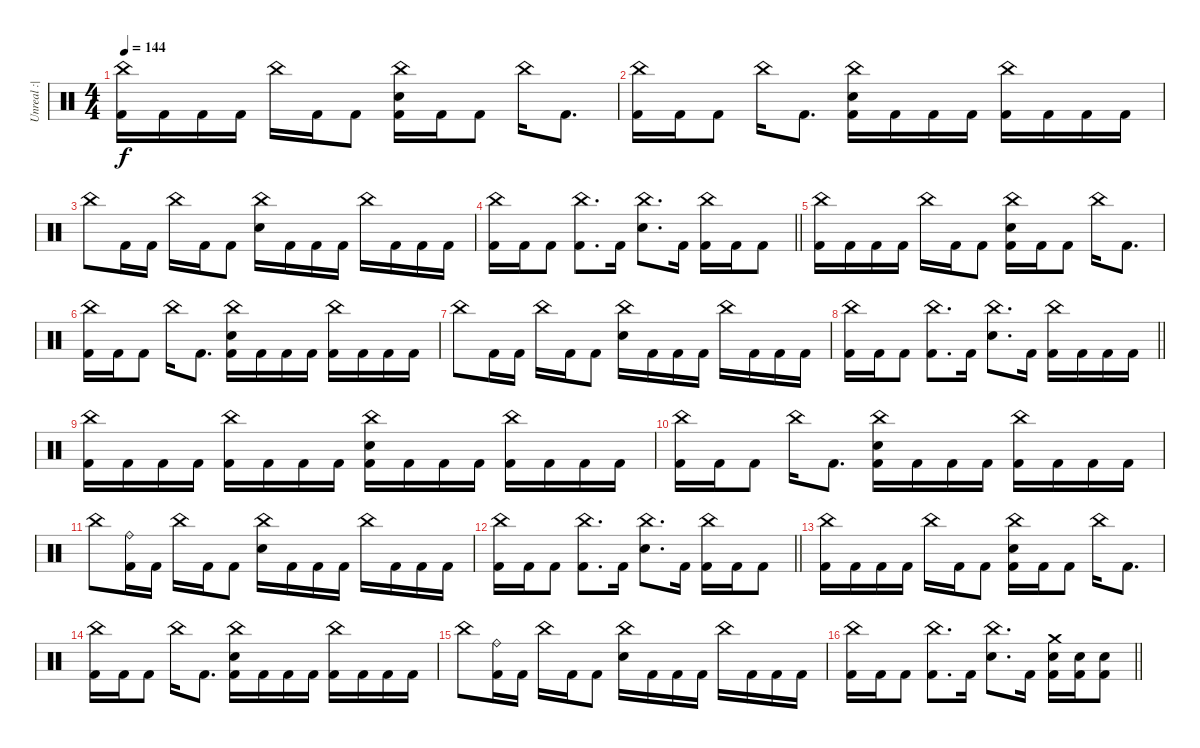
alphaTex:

\track ("Unreal :|" "Unreal :|") {instrument percussion}
\staff {score}
\articulation defaults
\ts (4 4)
\section ("" "")
\tempo 144
\clef neutral
\ks c
("China (hit)" "Kick (hit) 2").16{dy f} "Kick (hit) 2".16 "Kick (hit) 2".16 "Kick (hit) 2".16 "China (hit)".16 "Kick (hit) 2".16 "Kick (hit) 2".8 ("China (hit)" "Electric Snare (hit)" "Kick (hit) 2").16 "Kick (hit) 2".16 "Kick (hit) 2".8 "China (hit)".16 "Kick (hit) 2".8{d} |
("China (hit)" "Kick (hit) 2").16 "Kick (hit) 2".16 "Kick (hit) 2".8 "China (hit)".16 "Kick (hit) 2".8{d} ("China (hit)" "Electric Snare (hit)" "Kick (hit) 2").16 "Kick (hit) 2".16 "Kick (hit) 2".16 "Kick (hit) 2".16 ("China (hit)" "Kick (hit) 2").16 "Kick (hit) 2".16 "Kick (hit) 2".16 "Kick (hit) 2".16 |
"China (hit)".8 "Kick (hit) 2".16 "Kick (hit) 2".16 "China (hit)".16 "Kick (hit) 2".16 "Kick (hit) 2".8 ("China (hit)" "Electric Snare (hit)").16 "Kick (hit) 2".16 "Kick (hit) 2".16 "Kick (hit) 2".16 "China (hit)".16 "Kick (hit) 2".16 "Kick (hit) 2".16 "Kick (hit) 2".16 |
\barLineRight lightlight
("China (hit)" "Kick (hit) 2").16 "Kick (hit) 2".16 "Kick (hit) 2".8 ("China (hit)" "Kick (hit) 2").8{d} "Kick (hit) 2".16 ("China (hit)" "Electric Snare (hit)").8{d} "Kick (hit) 2".16 ("China (hit)" "Kick (hit) 2").16 "Kick (hit) 2".16 "Kick (hit) 2".8 |
("China (hit)" "Kick (hit) 2").16 "Kick (hit) 2".16 "Kick (hit) 2".16 "Kick (hit) 2".16 "China (hit)".16 "Kick (hit) 2".16 "Kick (hit) 2".8 ("China (hit)" "Electric Snare (hit)" "Kick (hit) 2").16 "Kick (hit) 2".16 "Kick (hit) 2".8 "China (hit)".16 "Kick (hit) 2".8{d} |
("China (hit)" "Kick (hit) 2").16 "Kick (hit) 2".16 "Kick (hit) 2".8 "China (hit)".16 "Kick (hit) 2".8{d} ("China (hit)" "Electric Snare (hit)" "Kick (hit) 2").16 "Kick (hit) 2".16 "Kick (hit) 2".16 "Kick (hit) 2".16 ("China (hit)" "Kick (hit) 2").16 "Kick (hit) 2".16 "Kick (hit) 2".16 "Kick (hit) 2".16 |
"China (hit)".8 "Kick (hit) 2".16 "Kick (hit) 2".16 "China (hit)".16 "Kick (hit) 2".16 "Kick (hit) 2".8 ("China (hit)" "Electric Snare (hit)").16 "Kick (hit) 2".16 "Kick (hit) 2".16 "Kick (hit) 2".16 "China (hit)".16 "Kick (hit) 2".16 "Kick (hit) 2".16 "Kick (hit) 2".16 |
\barLineRight lightlight
("China (hit)" "Kick (hit) 2").16 "Kick (hit) 2".16 "Kick (hit) 2".8 ("China (hit)" "Kick (hit) 2").8{d} "Kick (hit) 2".16 ("China (hit)" "Electric Snare (hit)").8{d} "Kick (hit) 2".16 ("China (hit)" "Kick (hit) 2").16 "Kick (hit) 2".16 "Kick (hit) 2".16 "Kick (hit) 2".16 |
\section ("" "")
("China (hit)" "Kick (hit) 2").16 "Kick (hit) 2".16 "Kick (hit) 2".16 "Kick (hit) 2".16 ("China (hit)" "Kick (hit) 2").16 "Kick (hit) 2".16 "Kick (hit) 2".16 "Kick (hit) 2".16 ("China (hit)" "Electric Snare (hit)" "Kick (hit) 2").16 "Kick (hit) 2".16 "Kick (hit) 2".16 "Kick (hit) 2".16 ("China (hit)" "Kick (hit) 2").16 "Kick (hit) 2".16 "Kick (hit) 2".16 "Kick (hit) 2".16 |
("China (hit)" "Kick (hit) 2").16 "Kick (hit) 2".16 "Kick (hit) 2".8 "China (hit)".16 "Kick (hit) 2".8{d} ("China (hit)" "Electric Snare (hit)" "Kick (hit) 2").16 "Kick (hit) 2".16 "Kick (hit) 2".16 "Kick (hit) 2".16 ("China (hit)" "Kick (hit) 2").16 "Kick (hit) 2".16 "Kick (hit) 2".16 "Kick (hit) 2".16 |
"China (hit)".8 ("Ride (bell)" "Kick (hit) 2").16 "Kick (hit) 2".16 "China (hit)".16 "Kick (hit) 2".16 "Kick (hit) 2".8 ("China (hit)" "Electric Snare (hit)").16 "Kick (hit) 2".16 "Kick (hit) 2".16 "Kick (hit) 2".16 "China (hit)".16 "Kick (hit) 2".16 "Kick (hit) 2".16 "Kick (hit) 2".16 |
\barLineRight lightlight
("China (hit)" "Kick (hit) 2").16 "Kick (hit) 2".16 "Kick (hit) 2".8 ("China (hit)" "Kick (hit) 2").8{d} "Kick (hit) 2".16 ("China (hit)" "Electric Snare (hit)").8{d} "Kick (hit) 2".16 ("China (hit)" "Kick (hit) 2").16 "Kick (hit) 2".16 "Kick (hit) 2".8 |
("China (hit)" "Kick (hit) 2").16 "Kick (hit) 2".16 "Kick (hit) 2".16 "Kick (hit) 2".16 "China (hit)".16 "Kick (hit) 2".16 "Kick (hit) 2".8 ("China (hit)" "Electric Snare (hit)" "Kick (hit) 2").16 "Kick (hit) 2".16 "Kick (hit) 2".8 "China (hit)".16 "Kick (hit) 2".8{d} |
("China (hit)" "Kick (hit) 2").16 "Kick (hit) 2".16 "Kick (hit) 2".8 "China (hit)".16 "Kick (hit) 2".8{d} ("China (hit)" "Electric Snare (hit)" "Kick (hit) 2").16 "Kick (hit) 2".16 "Kick (hit) 2".16 "Kick (hit) 2".16 ("China (hit)" "Kick (hit) 2").16 "Kick (hit) 2".16 "Kick (hit) 2".16 "Kick (hit) 2".16 |
"China (hit)".8 ("Ride (bell)" "Kick (hit) 2").16 "Kick (hit) 2".16 "China (hit)".16 "Kick (hit) 2".16 "Kick (hit) 2".8 ("China (hit)" "Electric Snare (hit)").16 "Kick (hit) 2".16 "Kick (hit) 2".16 "Kick (hit) 2".16 "China (hit)".16 "Kick (hit) 2".16 "Kick (hit) 2".16 "Kick (hit) 2".16 |
\barLineRight lightlight
("China (hit)" "Kick (hit) 2").16 "Kick (hit) 2".16 "Kick (hit) 2".8 ("China (hit)" "Kick (hit) 2").8{d} "Kick (hit) 2".16 ("China (hit)" "Electric Snare (hit)").8{d} "Kick (hit) 2".16 ("Crash medium (hit)" "Electric Snare (hit)" "Kick (hit) 2").16 ("Electric Snare (hit)" "Kick (hit) 2").16 ("Electric Snare (hit)" "Kick (hit) 2").8
